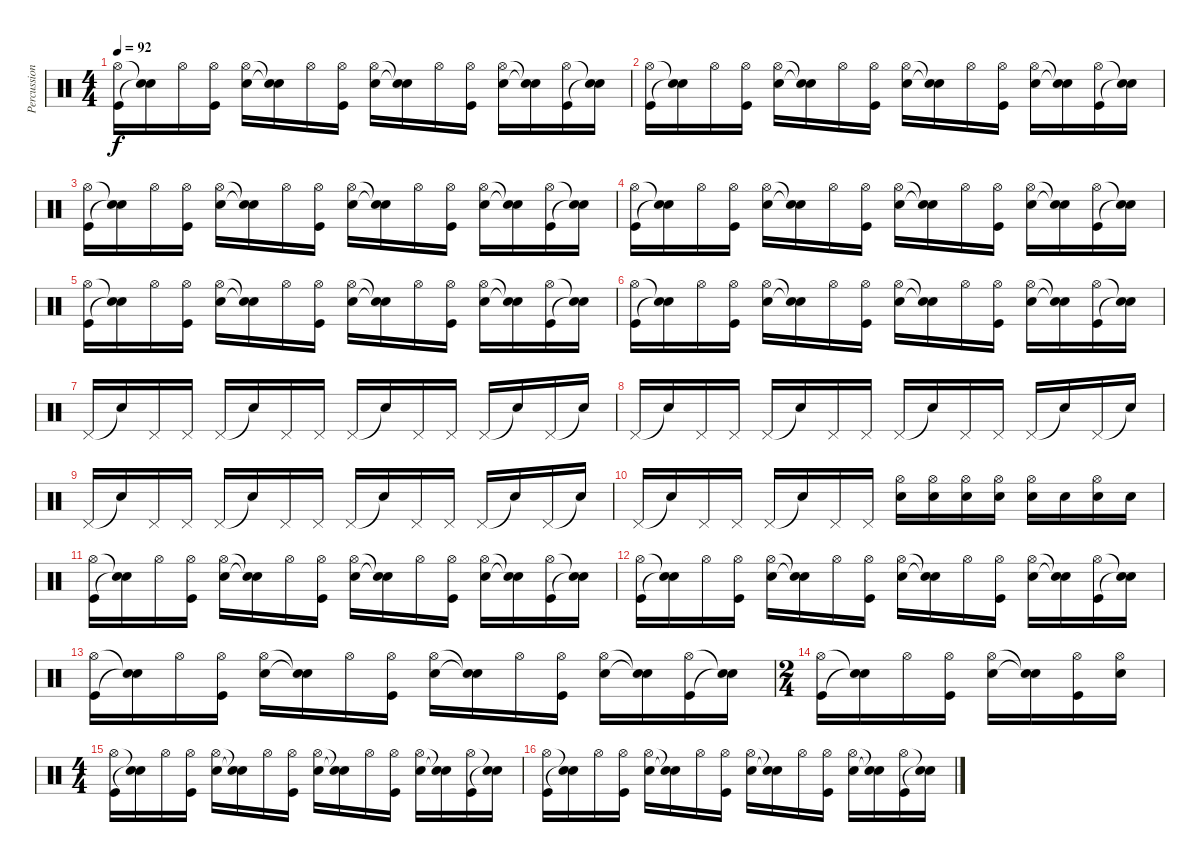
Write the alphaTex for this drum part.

\track ("Percussion" "Percussion") {instrument percussion}
\staff {score}
\articulation defaults
\ts (4 4)
\tempo 92
\clef neutral
\ks c
("Hi-Hat (open)" "Kick (hit)").16{dy f} ("Snare (hit)"{t} "Snare (hit)"{t}).16 "Hi-Hat (open)".16 ("Hi-Hat (open)" "Kick (hit)").16 ("Hi-Hat (open)" "Snare (hit) 2").16 ("Snare (hit)"{t} "Snare (hit)"{t}).16 "Hi-Hat (open)".16 ("Hi-Hat (open)" "Kick (hit)").16 ("Hi-Hat (open)" "Snare (hit) 2").16 ("Snare (hit)"{t} "Snare (hit)"{t}).16 "Hi-Hat (open)".16 ("Hi-Hat (open)" "Kick (hit)").16 ("Hi-Hat (open)" "Snare (hit) 2").16 ("Snare (hit)"{t} "Snare (hit)"{t}).16 ("Hi-Hat (open)" "Kick (hit)").16 ("Snare (hit)"{t} "Snare (hit)"{t}).16 |
("Hi-Hat (open)" "Kick (hit)").16 ("Snare (hit)"{t} "Snare (hit)"{t}).16 "Hi-Hat (open)".16 ("Hi-Hat (open)" "Kick (hit)").16 ("Hi-Hat (open)" "Snare (hit) 2").16 ("Snare (hit)"{t} "Snare (hit)"{t}).16 "Hi-Hat (open)".16 ("Hi-Hat (open)" "Kick (hit)").16 ("Hi-Hat (open)" "Snare (hit) 2").16 ("Snare (hit)"{t} "Snare (hit)"{t}).16 "Hi-Hat (open)".16 ("Hi-Hat (open)" "Kick (hit)").16 ("Hi-Hat (open)" "Snare (hit) 2").16 ("Snare (hit)"{t} "Snare (hit)"{t}).16 ("Hi-Hat (open)" "Kick (hit)").16 ("Snare (hit)"{t} "Snare (hit)"{t}).16 |
("Hi-Hat (open)" "Kick (hit)").16 ("Snare (hit)"{t} "Snare (hit)"{t}).16 "Hi-Hat (open)".16 ("Hi-Hat (open)" "Kick (hit)").16 ("Hi-Hat (open)" "Snare (hit) 2").16 ("Snare (hit)"{t} "Snare (hit)"{t}).16 "Hi-Hat (open)".16 ("Hi-Hat (open)" "Kick (hit)").16 ("Hi-Hat (open)" "Snare (hit) 2").16 ("Snare (hit)"{t} "Snare (hit)"{t}).16 "Hi-Hat (open)".16 ("Hi-Hat (open)" "Kick (hit)").16 ("Hi-Hat (open)" "Snare (hit) 2").16 ("Snare (hit)"{t} "Snare (hit)"{t}).16 ("Hi-Hat (open)" "Kick (hit)").16 ("Snare (hit)"{t} "Snare (hit)"{t}).16 |
("Hi-Hat (open)" "Kick (hit)").16 ("Snare (hit)"{t} "Snare (hit)"{t}).16 "Hi-Hat (open)".16 ("Hi-Hat (open)" "Kick (hit)").16 ("Hi-Hat (open)" "Snare (hit) 2").16 ("Snare (hit)"{t} "Snare (hit)"{t}).16 "Hi-Hat (open)".16 ("Hi-Hat (open)" "Kick (hit)").16 ("Hi-Hat (open)" "Snare (hit) 2").16 ("Snare (hit)"{t} "Snare (hit)"{t}).16 "Hi-Hat (open)".16 ("Hi-Hat (open)" "Kick (hit)").16 ("Hi-Hat (open)" "Snare (hit) 2").16 ("Snare (hit)"{t} "Snare (hit)"{t}).16 ("Hi-Hat (open)" "Kick (hit)").16 ("Snare (hit)"{t} "Snare (hit)"{t}).16 |
("Hi-Hat (open)" "Kick (hit)").16 ("Snare (hit)"{t} "Snare (hit)"{t}).16 "Hi-Hat (open)".16 ("Hi-Hat (open)" "Kick (hit)").16 ("Hi-Hat (open)" "Snare (hit) 2").16 ("Snare (hit)"{t} "Snare (hit)"{t}).16 "Hi-Hat (open)".16 ("Hi-Hat (open)" "Kick (hit)").16 ("Hi-Hat (open)" "Snare (hit) 2").16 ("Snare (hit)"{t} "Snare (hit)"{t}).16 "Hi-Hat (open)".16 ("Hi-Hat (open)" "Kick (hit)").16 ("Hi-Hat (open)" "Snare (hit) 2").16 ("Snare (hit)"{t} "Snare (hit)"{t}).16 ("Hi-Hat (open)" "Kick (hit)").16 ("Snare (hit)"{t} "Snare (hit)"{t}).16 |
("Hi-Hat (open)" "Kick (hit)").16 ("Snare (hit)"{t} "Snare (hit)"{t}).16 "Hi-Hat (open)".16 ("Hi-Hat (open)" "Kick (hit)").16 ("Hi-Hat (open)" "Snare (hit) 2").16 ("Snare (hit)"{t} "Snare (hit)"{t}).16 "Hi-Hat (open)".16 ("Hi-Hat (open)" "Kick (hit)").16 ("Hi-Hat (open)" "Snare (hit) 2").16 ("Snare (hit)"{t} "Snare (hit)"{t}).16 "Hi-Hat (open)".16 ("Hi-Hat (open)" "Kick (hit)").16 ("Hi-Hat (open)" "Snare (hit) 2").16 ("Snare (hit)"{t} "Snare (hit)"{t}).16 ("Hi-Hat (open)" "Kick (hit)").16 ("Snare (hit)"{t} "Snare (hit)"{t}).16 |
"Pedal Hi-Hat (hit)".16 "Snare (hit)"{t}.16 "Pedal Hi-Hat (hit)".16 "Pedal Hi-Hat (hit)".16 "Pedal Hi-Hat (hit)".16 "Snare (hit)"{t}.16 "Pedal Hi-Hat (hit)".16 "Pedal Hi-Hat (hit)".16 "Pedal Hi-Hat (hit)".16 "Snare (hit)"{t}.16 "Pedal Hi-Hat (hit)".16 "Pedal Hi-Hat (hit)".16 "Pedal Hi-Hat (hit)".16 "Snare (hit)"{t}.16 "Pedal Hi-Hat (hit)".16 "Snare (hit)"{t}.16 |
"Pedal Hi-Hat (hit)".16 "Snare (hit)"{t}.16 "Pedal Hi-Hat (hit)".16 "Pedal Hi-Hat (hit)".16 "Pedal Hi-Hat (hit)".16 "Snare (hit)"{t}.16 "Pedal Hi-Hat (hit)".16 "Pedal Hi-Hat (hit)".16 "Pedal Hi-Hat (hit)".16 "Snare (hit)"{t}.16 "Pedal Hi-Hat (hit)".16 "Pedal Hi-Hat (hit)".16 "Pedal Hi-Hat (hit)".16 "Snare (hit)"{t}.16 "Pedal Hi-Hat (hit)".16 "Snare (hit)"{t}.16 |
"Pedal Hi-Hat (hit)".16 "Snare (hit)"{t}.16 "Pedal Hi-Hat (hit)".16 "Pedal Hi-Hat (hit)".16 "Pedal Hi-Hat (hit)".16 "Snare (hit)"{t}.16 "Pedal Hi-Hat (hit)".16 "Pedal Hi-Hat (hit)".16 "Pedal Hi-Hat (hit)".16 "Snare (hit)"{t}.16 "Pedal Hi-Hat (hit)".16 "Pedal Hi-Hat (hit)".16 "Pedal Hi-Hat (hit)".16 "Snare (hit)"{t}.16 "Pedal Hi-Hat (hit)".16 "Snare (hit)"{t}.16 |
"Pedal Hi-Hat (hit)".16 "Snare (hit)"{t}.16 "Pedal Hi-Hat (hit)".16 "Pedal Hi-Hat (hit)".16 "Pedal Hi-Hat (hit)".16 "Snare (hit)"{t}.16 "Pedal Hi-Hat (hit)".16 "Pedal Hi-Hat (hit)".16 ("Hi-Hat (open)" "Snare (hit) 2").16 ("Hi-Hat (open)" "Snare (hit) 2").16 ("Hi-Hat (open)" "Snare (hit) 2").16 ("Hi-Hat (open)" "Snare (hit) 2").16 ("Hi-Hat (open)" "Snare (hit) 2").16 "Snare (hit) 2".16 ("Hi-Hat (open)" "Snare (hit) 2").16 "Snare (hit) 2".16 |
("Hi-Hat (open)" "Kick (hit)").16 ("Snare (hit)"{t} "Snare (hit)"{t}).16 "Hi-Hat (open)".16 ("Hi-Hat (open)" "Kick (hit)").16 ("Hi-Hat (open)" "Snare (hit) 2").16 ("Snare (hit)"{t} "Snare (hit)"{t}).16 "Hi-Hat (open)".16 ("Hi-Hat (open)" "Kick (hit)").16 ("Hi-Hat (open)" "Snare (hit) 2").16 ("Snare (hit)"{t} "Snare (hit)"{t}).16 "Hi-Hat (open)".16 ("Hi-Hat (open)" "Kick (hit)").16 ("Hi-Hat (open)" "Snare (hit) 2").16 ("Snare (hit)"{t} "Snare (hit)"{t}).16 ("Hi-Hat (open)" "Kick (hit)").16 ("Snare (hit)"{t} "Snare (hit)"{t}).16 |
("Hi-Hat (open)" "Kick (hit)").16 ("Snare (hit)"{t} "Snare (hit)"{t}).16 "Hi-Hat (open)".16 ("Hi-Hat (open)" "Kick (hit)").16 ("Hi-Hat (open)" "Snare (hit) 2").16 ("Snare (hit)"{t} "Snare (hit)"{t}).16 "Hi-Hat (open)".16 ("Hi-Hat (open)" "Kick (hit)").16 ("Hi-Hat (open)" "Snare (hit) 2").16 ("Snare (hit)"{t} "Snare (hit)"{t}).16 "Hi-Hat (open)".16 ("Hi-Hat (open)" "Kick (hit)").16 ("Hi-Hat (open)" "Snare (hit) 2").16 ("Snare (hit)"{t} "Snare (hit)"{t}).16 ("Hi-Hat (open)" "Kick (hit)").16 ("Snare (hit)"{t} "Snare (hit)"{t}).16 |
("Hi-Hat (open)" "Kick (hit)").16 ("Snare (hit)"{t} "Snare (hit)"{t}).16 "Hi-Hat (open)".16 ("Hi-Hat (open)" "Kick (hit)").16 ("Hi-Hat (open)" "Snare (hit) 2").16 ("Snare (hit)"{t} "Snare (hit)"{t}).16 "Hi-Hat (open)".16 ("Hi-Hat (open)" "Kick (hit)").16 ("Hi-Hat (open)" "Snare (hit) 2").16 ("Snare (hit)"{t} "Snare (hit)"{t}).16 "Hi-Hat (open)".16 ("Hi-Hat (open)" "Kick (hit)").16 ("Hi-Hat (open)" "Snare (hit) 2").16 ("Snare (hit)"{t} "Snare (hit)"{t}).16 ("Hi-Hat (open)" "Kick (hit)").16 ("Snare (hit)"{t} "Snare (hit)"{t}).16 |
\ts (2 4)
("Hi-Hat (open)" "Kick (hit)").16 ("Snare (hit)"{t} "Snare (hit)"{t}).16 "Hi-Hat (open)".16 ("Hi-Hat (open)" "Kick (hit)").16 ("Hi-Hat (open)" "Snare (hit) 2").16 ("Snare (hit)"{t} "Snare (hit)"{t}).16 ("Hi-Hat (open)" "Kick (hit)").16 ("Hi-Hat (open)" "Snare (hit) 2").16 |
\ts (4 4)
("Hi-Hat (open)" "Kick (hit)").16 ("Snare (hit)"{t} "Snare (hit)"{t}).16 "Hi-Hat (open)".16 ("Hi-Hat (open)" "Kick (hit)").16 ("Hi-Hat (open)" "Snare (hit) 2").16 ("Snare (hit)"{t} "Snare (hit)"{t}).16 "Hi-Hat (open)".16 ("Hi-Hat (open)" "Kick (hit)").16 ("Hi-Hat (open)" "Snare (hit) 2").16 ("Snare (hit)"{t} "Snare (hit)"{t}).16 "Hi-Hat (open)".16 ("Hi-Hat (open)" "Kick (hit)").16 ("Hi-Hat (open)" "Snare (hit) 2").16 ("Snare (hit)"{t} "Snare (hit)"{t}).16 ("Hi-Hat (open)" "Kick (hit)").16 ("Snare (hit)"{t} "Snare (hit)"{t}).16 |
("Hi-Hat (open)" "Kick (hit)").16 ("Snare (hit)"{t} "Snare (hit)"{t}).16 "Hi-Hat (open)".16 ("Hi-Hat (open)" "Kick (hit)").16 ("Hi-Hat (open)" "Snare (hit) 2").16 ("Snare (hit)"{t} "Snare (hit)"{t}).16 "Hi-Hat (open)".16 ("Hi-Hat (open)" "Kick (hit)").16 ("Hi-Hat (open)" "Snare (hit) 2").16 ("Snare (hit)"{t} "Snare (hit)"{t}).16 "Hi-Hat (open)".16 ("Hi-Hat (open)" "Kick (hit)").16 ("Hi-Hat (open)" "Snare (hit) 2").16 ("Snare (hit)"{t} "Snare (hit)"{t}).16 ("Hi-Hat (open)" "Kick (hit)").16 ("Snare (hit)"{t} "Snare (hit)"{t}).16
